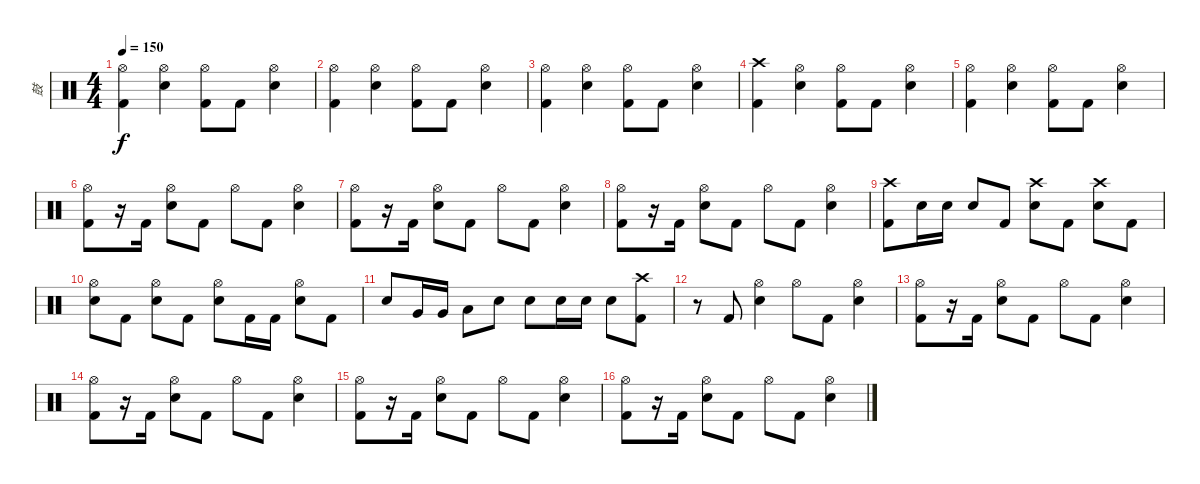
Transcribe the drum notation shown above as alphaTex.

\track ("鼓" "鼓") {instrument percussion}
\staff {score}
\articulation defaults
\ts (4 4)
\tempo 150
\clef neutral
\ks c
("Hi-Hat (open)" "Kick (hit) 2").4{dy f} ("Hi-Hat (open)" "Snare (hit) 2").4 ("Hi-Hat (open)" "Kick (hit) 2").8 "Kick (hit) 2".8 ("Hi-Hat (open)" "Snare (hit) 2").4 |
("Hi-Hat (open)" "Kick (hit) 2").4 ("Hi-Hat (open)" "Snare (hit) 2").4 ("Hi-Hat (open)" "Kick (hit) 2").8 "Kick (hit) 2".8 ("Hi-Hat (open)" "Snare (hit) 2").4 |
("Hi-Hat (open)" "Kick (hit) 2").4 ("Hi-Hat (open)" "Snare (hit) 2").4 ("Hi-Hat (open)" "Kick (hit) 2").8 "Kick (hit) 2".8 ("Hi-Hat (open)" "Snare (hit) 2").4 |
("Crash high (hit)" "Kick (hit) 2").4 ("Hi-Hat (open)" "Snare (hit) 2").4 ("Hi-Hat (open)" "Kick (hit) 2").8 "Kick (hit) 2".8 ("Hi-Hat (open)" "Snare (hit) 2").4 |
("Hi-Hat (open)" "Kick (hit) 2").4 ("Hi-Hat (open)" "Snare (hit) 2").4 ("Hi-Hat (open)" "Kick (hit) 2").8 "Kick (hit) 2".8 ("Hi-Hat (open)" "Snare (hit) 2").4 |
("Hi-Hat (open)" "Kick (hit) 2").8 r.16 "Kick (hit) 2".16 ("Hi-Hat (open)" "Snare (hit) 2").8 "Kick (hit) 2".8 "Hi-Hat (open)".8 "Kick (hit) 2".8 ("Hi-Hat (open)" "Snare (hit) 2").4 |
("Hi-Hat (open)" "Kick (hit) 2").8 r.16 "Kick (hit) 2".16 ("Hi-Hat (open)" "Snare (hit) 2").8 "Kick (hit) 2".8 "Hi-Hat (open)".8 "Kick (hit) 2".8 ("Hi-Hat (open)" "Snare (hit) 2").4 |
("Hi-Hat (open)" "Kick (hit) 2").8 r.16 "Kick (hit) 2".16 ("Hi-Hat (open)" "Snare (hit) 2").8 "Kick (hit) 2".8 "Hi-Hat (open)".8 "Kick (hit) 2".8 ("Hi-Hat (open)" "Snare (hit) 2").4 |
("Crash high (hit)" "Kick (hit) 2").8 "Snare (hit) 2".16 "Snare (hit) 2".16 "Snare (hit) 2".8 "Kick (hit) 2".8 ("Crash high (hit)" "Snare (hit) 2").8 "Kick (hit) 2".8 ("Crash high (hit)" "Snare (hit) 2").8 "Kick (hit) 2".8 |
("Hi-Hat (open)" "Snare (hit) 2").8 "Kick (hit) 2".8 ("Hi-Hat (open)" "Snare (hit) 2").8 "Kick (hit) 2".8 ("Hi-Hat (open)" "Snare (hit) 2").8 "Kick (hit) 2".16 "Kick (hit) 2".16 ("Hi-Hat (open)" "Snare (hit) 2").8 "Kick (hit) 2".8 |
"Snare (hit) 2".8 "Very Low Tom (hit)".16 "Very Low Tom (hit)".16 "Low Floor Tom (hit)".8 "Snare (hit) 2".8 "Snare (hit) 2".8 "Snare (hit) 2".16 "Snare (hit) 2".16 "Snare (hit) 2".8 ("Crash high (hit)" "Kick (hit) 2").8 |
r.8 "Kick (hit) 2".8 ("Hi-Hat (open)" "Snare (hit) 2").4 "Hi-Hat (open)".8 "Kick (hit) 2".8 ("Hi-Hat (open)" "Snare (hit) 2").4 |
("Hi-Hat (open)" "Kick (hit) 2").8 r.16 "Kick (hit) 2".16 ("Hi-Hat (open)" "Snare (hit) 2").8 "Kick (hit) 2".8 "Hi-Hat (open)".8 "Kick (hit) 2".8 ("Hi-Hat (open)" "Snare (hit) 2").4 |
("Hi-Hat (open)" "Kick (hit) 2").8 r.16 "Kick (hit) 2".16 ("Hi-Hat (open)" "Snare (hit) 2").8 "Kick (hit) 2".8 "Hi-Hat (open)".8 "Kick (hit) 2".8 ("Hi-Hat (open)" "Snare (hit) 2").4 |
("Hi-Hat (open)" "Kick (hit) 2").8 r.16 "Kick (hit) 2".16 ("Hi-Hat (open)" "Snare (hit) 2").8 "Kick (hit) 2".8 "Hi-Hat (open)".8 "Kick (hit) 2".8 ("Hi-Hat (open)" "Snare (hit) 2").4 |
("Hi-Hat (open)" "Kick (hit) 2").8 r.16 "Kick (hit) 2".16 ("Hi-Hat (open)" "Snare (hit) 2").8 "Kick (hit) 2".8 "Hi-Hat (open)".8 "Kick (hit) 2".8 ("Hi-Hat (open)" "Snare (hit) 2").4
